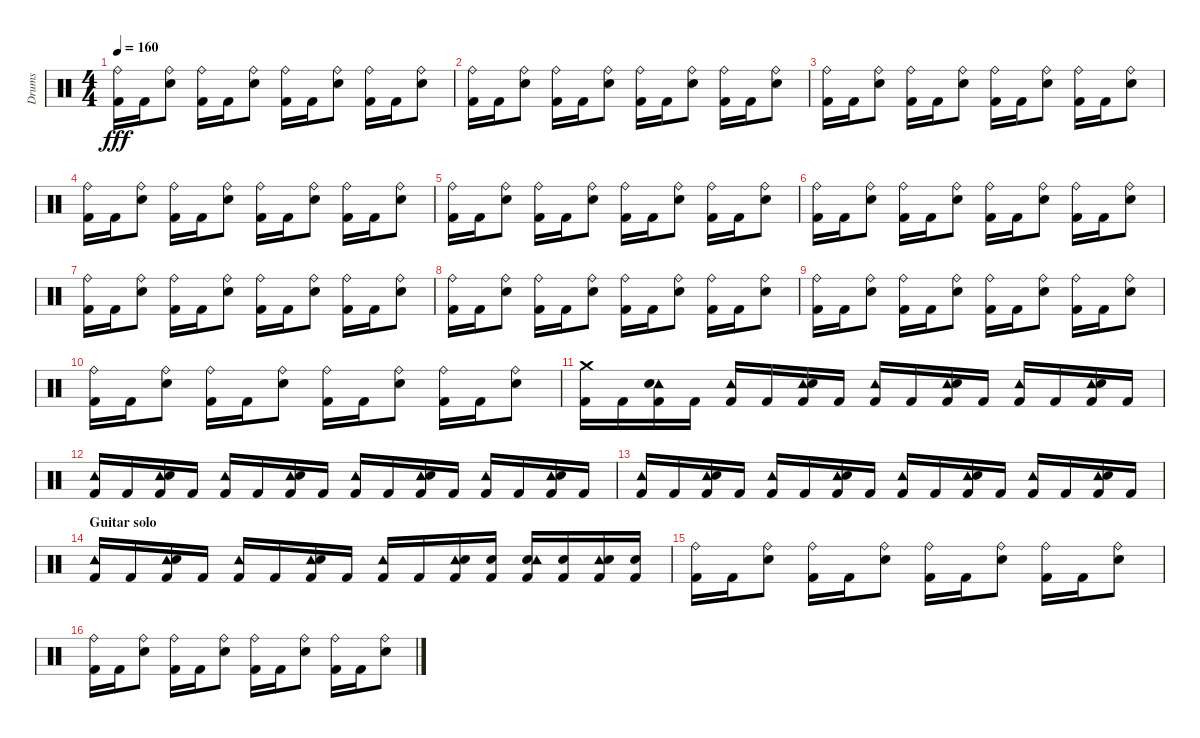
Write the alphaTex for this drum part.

\track ("Drums" "Drums") {instrument percussion}
\staff {score}
\articulation defaults
\ts (4 4)
\tempo 160
\clef neutral
\ks c
("Kick (hit) 2" "Ride (bell)").16{dy fff} "Kick (hit) 2".16 ("Electric Snare (hit)" "Ride (bell)").8 ("Kick (hit) 2" "Ride (bell)").16 "Kick (hit) 2".16 ("Electric Snare (hit)" "Ride (bell)").8 ("Kick (hit) 2" "Ride (bell)").16 "Kick (hit) 2".16 ("Electric Snare (hit)" "Ride (bell)").8 ("Kick (hit) 2" "Ride (bell)").16 "Kick (hit) 2".16 ("Electric Snare (hit)" "Ride (bell)").8 |
("Kick (hit) 2" "Ride (bell)").16 "Kick (hit) 2".16 ("Electric Snare (hit)" "Ride (bell)").8 ("Kick (hit) 2" "Ride (bell)").16 "Kick (hit) 2".16 ("Electric Snare (hit)" "Ride (bell)").8 ("Kick (hit) 2" "Ride (bell)").16 "Kick (hit) 2".16 ("Electric Snare (hit)" "Ride (bell)").8 ("Kick (hit) 2" "Ride (bell)").16 "Kick (hit) 2".16 ("Electric Snare (hit)" "Ride (bell)").8 |
("Kick (hit) 2" "Ride (bell)").16 "Kick (hit) 2".16 ("Electric Snare (hit)" "Ride (bell)").8 ("Kick (hit) 2" "Ride (bell)").16 "Kick (hit) 2".16 ("Electric Snare (hit)" "Ride (bell)").8 ("Kick (hit) 2" "Ride (bell)").16 "Kick (hit) 2".16 ("Electric Snare (hit)" "Ride (bell)").8 ("Kick (hit) 2" "Ride (bell)").16 "Kick (hit) 2".16 ("Electric Snare (hit)" "Ride (bell)").8 |
("Kick (hit) 2" "Ride (bell)").16 "Kick (hit) 2".16 ("Electric Snare (hit)" "Ride (bell)").8 ("Kick (hit) 2" "Ride (bell)").16 "Kick (hit) 2".16 ("Electric Snare (hit)" "Ride (bell)").8 ("Kick (hit) 2" "Ride (bell)").16 "Kick (hit) 2".16 ("Electric Snare (hit)" "Ride (bell)").8 ("Kick (hit) 2" "Ride (bell)").16 "Kick (hit) 2".16 ("Electric Snare (hit)" "Ride (bell)").8 |
("Kick (hit) 2" "Ride (bell)").16 "Kick (hit) 2".16 ("Electric Snare (hit)" "Ride (bell)").8 ("Kick (hit) 2" "Ride (bell)").16 "Kick (hit) 2".16 ("Electric Snare (hit)" "Ride (bell)").8 ("Kick (hit) 2" "Ride (bell)").16 "Kick (hit) 2".16 ("Electric Snare (hit)" "Ride (bell)").8 ("Kick (hit) 2" "Ride (bell)").16 "Kick (hit) 2".16 ("Electric Snare (hit)" "Ride (bell)").8 |
("Kick (hit) 2" "Ride (bell)").16 "Kick (hit) 2".16 ("Electric Snare (hit)" "Ride (bell)").8 ("Kick (hit) 2" "Ride (bell)").16 "Kick (hit) 2".16 ("Electric Snare (hit)" "Ride (bell)").8 ("Kick (hit) 2" "Ride (bell)").16 "Kick (hit) 2".16 ("Electric Snare (hit)" "Ride (bell)").8 ("Kick (hit) 2" "Ride (bell)").16 "Kick (hit) 2".16 ("Electric Snare (hit)" "Ride (bell)").8 |
("Kick (hit) 2" "Ride (bell)").16 "Kick (hit) 2".16 ("Electric Snare (hit)" "Ride (bell)").8 ("Kick (hit) 2" "Ride (bell)").16 "Kick (hit) 2".16 ("Electric Snare (hit)" "Ride (bell)").8 ("Kick (hit) 2" "Ride (bell)").16 "Kick (hit) 2".16 ("Electric Snare (hit)" "Ride (bell)").8 ("Kick (hit) 2" "Ride (bell)").16 "Kick (hit) 2".16 ("Electric Snare (hit)" "Ride (bell)").8 |
("Kick (hit) 2" "Ride (bell)").16 "Kick (hit) 2".16 ("Electric Snare (hit)" "Ride (bell)").8 ("Kick (hit) 2" "Ride (bell)").16 "Kick (hit) 2".16 ("Electric Snare (hit)" "Ride (bell)").8 ("Kick (hit) 2" "Ride (bell)").16 "Kick (hit) 2".16 ("Electric Snare (hit)" "Ride (bell)").8 ("Kick (hit) 2" "Ride (bell)").16 "Kick (hit) 2".16 ("Electric Snare (hit)" "Ride (bell)").8 |
("Kick (hit) 2" "Ride (bell)").16 "Kick (hit) 2".16 ("Electric Snare (hit)" "Ride (bell)").8 ("Kick (hit) 2" "Ride (bell)").16 "Kick (hit) 2".16 ("Electric Snare (hit)" "Ride (bell)").8 ("Kick (hit) 2" "Ride (bell)").16 "Kick (hit) 2".16 ("Electric Snare (hit)" "Ride (bell)").8 ("Kick (hit) 2" "Ride (bell)").16 "Kick (hit) 2".16 ("Electric Snare (hit)" "Ride (bell)").8 |
("Kick (hit) 2" "Ride (bell)").16 "Kick (hit) 2".16 ("Electric Snare (hit)" "Ride (bell)").8 ("Kick (hit) 2" "Ride (bell)").16 "Kick (hit) 2".16 ("Electric Snare (hit)" "Ride (bell)").8 ("Kick (hit) 2" "Ride (bell)").16 "Kick (hit) 2".16 ("Electric Snare (hit)" "Ride (bell)").8 ("Kick (hit) 2" "Ride (bell)").16 "Kick (hit) 2".16 ("Electric Snare (hit)" "Ride (bell)").8 |
("Crash medium (hit)" "Kick (hit) 2").16 "Kick (hit) 2".16 ("Kick (hit) 2" "Tambourine (hit)" "Electric Snare (hit)").16 "Kick (hit) 2".16 ("Tambourine (hit)" "Kick (hit) 2").16 "Kick (hit) 2".16 ("Kick (hit) 2" "Tambourine (hit)" "Electric Snare (hit)").16 "Kick (hit) 2".16 ("Tambourine (hit)" "Kick (hit) 2").16 "Kick (hit) 2".16 ("Kick (hit) 2" "Tambourine (hit)" "Electric Snare (hit)").16 "Kick (hit) 2".16 ("Tambourine (hit)" "Kick (hit) 2").16 "Kick (hit) 2".16 ("Kick (hit) 2" "Tambourine (hit)" "Electric Snare (hit)").16 "Kick (hit) 2".16 |
("Tambourine (hit)" "Kick (hit) 2").16 "Kick (hit) 2".16 ("Kick (hit) 2" "Tambourine (hit)" "Electric Snare (hit)").16 "Kick (hit) 2".16 ("Tambourine (hit)" "Kick (hit) 2").16 "Kick (hit) 2".16 ("Kick (hit) 2" "Tambourine (hit)" "Electric Snare (hit)").16 "Kick (hit) 2".16 ("Tambourine (hit)" "Kick (hit) 2").16 "Kick (hit) 2".16 ("Kick (hit) 2" "Tambourine (hit)" "Electric Snare (hit)").16 "Kick (hit) 2".16 ("Tambourine (hit)" "Kick (hit) 2").16 "Kick (hit) 2".16 ("Kick (hit) 2" "Tambourine (hit)" "Electric Snare (hit)").16 "Kick (hit) 2".16 |
("Tambourine (hit)" "Kick (hit) 2").16 "Kick (hit) 2".16 ("Kick (hit) 2" "Tambourine (hit)" "Electric Snare (hit)").16 "Kick (hit) 2".16 ("Tambourine (hit)" "Kick (hit) 2").16 "Kick (hit) 2".16 ("Kick (hit) 2" "Tambourine (hit)" "Electric Snare (hit)").16 "Kick (hit) 2".16 ("Tambourine (hit)" "Kick (hit) 2").16 "Kick (hit) 2".16 ("Kick (hit) 2" "Tambourine (hit)" "Electric Snare (hit)").16 "Kick (hit) 2".16 ("Tambourine (hit)" "Kick (hit) 2").16 "Kick (hit) 2".16 ("Kick (hit) 2" "Tambourine (hit)" "Electric Snare (hit)").16 "Kick (hit) 2".16 |
\section ("" "Guitar solo")
("Tambourine (hit)" "Kick (hit) 2").16 "Kick (hit) 2".16 ("Kick (hit) 2" "Tambourine (hit)" "Electric Snare (hit)").16 "Kick (hit) 2".16 ("Tambourine (hit)" "Kick (hit) 2").16 "Kick (hit) 2".16 ("Kick (hit) 2" "Tambourine (hit)" "Electric Snare (hit)").16 "Kick (hit) 2".16 ("Tambourine (hit)" "Kick (hit) 2").16 "Kick (hit) 2".16 ("Kick (hit) 2" "Tambourine (hit)" "Electric Snare (hit)").16 ("Electric Snare (hit)" "Kick (hit) 2").16 ("Electric Snare (hit)" "Tambourine (hit)" "Kick (hit) 2").16 ("Electric Snare (hit)" "Kick (hit) 2").16 ("Kick (hit) 2" "Tambourine (hit)" "Electric Snare (hit)").16 ("Electric Snare (hit)" "Kick (hit) 2").16 |
("Kick (hit) 2" "Ride (bell)").16 "Kick (hit) 2".16 ("Electric Snare (hit)" "Ride (bell)").8 ("Kick (hit) 2" "Ride (bell)").16 "Kick (hit) 2".16 ("Electric Snare (hit)" "Ride (bell)").8 ("Kick (hit) 2" "Ride (bell)").16 "Kick (hit) 2".16 ("Electric Snare (hit)" "Ride (bell)").8 ("Kick (hit) 2" "Ride (bell)").16 "Kick (hit) 2".16 ("Electric Snare (hit)" "Ride (bell)").8 |
("Kick (hit) 2" "Ride (bell)").16 "Kick (hit) 2".16 ("Electric Snare (hit)" "Ride (bell)").8 ("Kick (hit) 2" "Ride (bell)").16 "Kick (hit) 2".16 ("Electric Snare (hit)" "Ride (bell)").8 ("Kick (hit) 2" "Ride (bell)").16 "Kick (hit) 2".16 ("Electric Snare (hit)" "Ride (bell)").8 ("Kick (hit) 2" "Ride (bell)").16 "Kick (hit) 2".16 ("Electric Snare (hit)" "Ride (bell)").8
